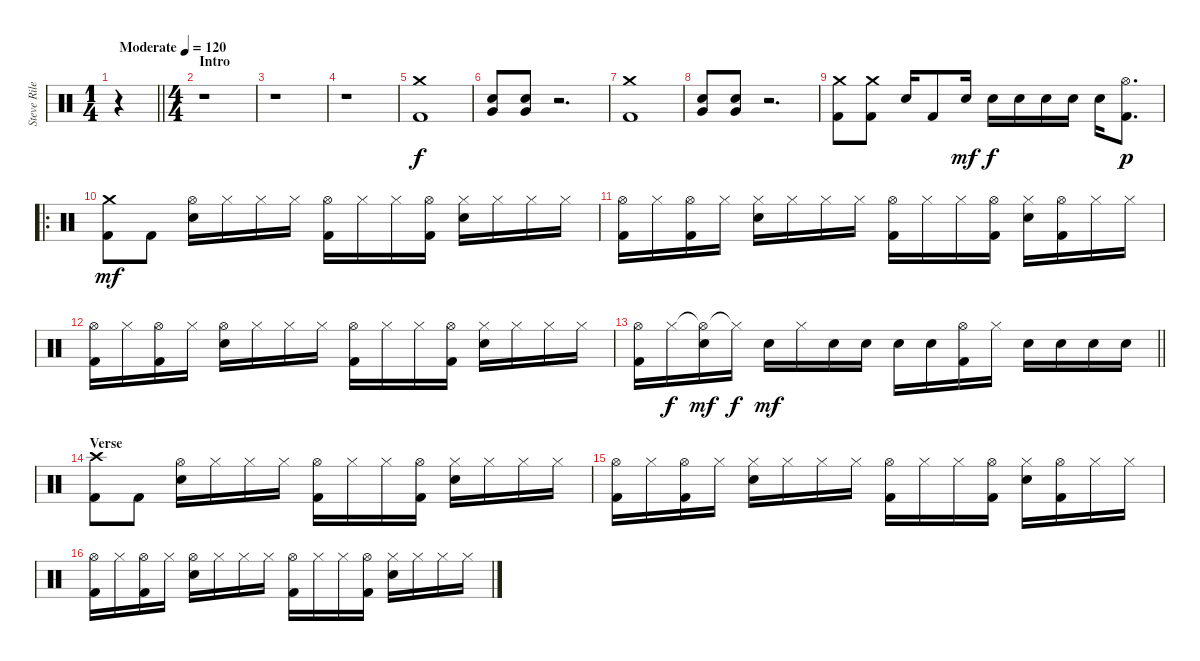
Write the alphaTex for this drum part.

\track ("Steve Riley" "Steve Rile") {instrument percussion}
\staff {score}
\articulation defaults
\ts (1 4)
\tempo (120 "Moderate")
\clef neutral
\barLineRight lightlight
\ks c
r.4{dy f} |
\ts (4 4)
\section ("" "Intro")
r.1 |
r.1 |
r.1 |
("Crash medium (hit)" "Kick (hit) 2").1 |
("Very Low Tom (hit)" "Snare (hit) 2").8 ("Very Low Tom (hit)" "Snare (hit) 2").8 r.2{d} |
("Crash medium (hit)" "Kick (hit) 2").1 |
("Very Low Tom (hit)" "Snare (hit) 2").8 ("Very Low Tom (hit)" "Snare (hit) 2").8 r.2{d} |
("Crash medium (hit)" "Kick (hit) 2").8 ("Crash medium (hit)" "Kick (hit) 2").8 "Snare (hit) 2".16 "Kick (hit) 2".8 "Snare (hit) 2".16{dy mf} "Snare (hit) 2".16{dy f} "Snare (hit) 2".16 "Snare (hit) 2".16 "Snare (hit) 2".16 "Snare (hit) 2".16 ("Hi-Hat (open)" "Kick (hit) 2").8{d dy p} |
\ro
("Crash medium (hit)" "Kick (hit) 2").8{dy mf} "Kick (hit) 2".8 ("Hi-Hat (open)" "Snare (hit) 2").16 "Hi-Hat (closed)".16 "Hi-Hat (closed)".16 "Hi-Hat (closed)".16 ("Hi-Hat (open)" "Kick (hit) 2").16 "Hi-Hat (closed)".16 "Hi-Hat (closed)".16 ("Hi-Hat (open)" "Kick (hit) 2").16 ("Hi-Hat (closed)" "Snare (hit) 2").16 "Hi-Hat (closed)".16 "Hi-Hat (closed)".16 "Hi-Hat (closed)".16 |
("Hi-Hat (open)" "Kick (hit) 2").16 "Hi-Hat (closed)".16 ("Hi-Hat (open)" "Kick (hit) 2").16 "Hi-Hat (closed)".16 ("Hi-Hat (closed)" "Snare (hit) 2").16 "Hi-Hat (closed)".16 "Hi-Hat (closed)".16 "Hi-Hat (closed)".16 ("Hi-Hat (open)" "Kick (hit) 2").16 "Hi-Hat (closed)".16 "Hi-Hat (closed)".16 ("Hi-Hat (open)" "Kick (hit) 2").16 ("Hi-Hat (closed)" "Snare (hit) 2").16 ("Hi-Hat (open)" "Kick (hit) 2").16 "Hi-Hat (closed)".16 "Hi-Hat (closed)".16 |
("Hi-Hat (open)" "Kick (hit) 2").16 "Hi-Hat (closed)".16 ("Hi-Hat (open)" "Kick (hit) 2").16 "Hi-Hat (closed)".16 ("Hi-Hat (open)" "Snare (hit) 2").16 "Hi-Hat (closed)".16 "Hi-Hat (closed)".16 "Hi-Hat (closed)".16 ("Hi-Hat (open)" "Kick (hit) 2").16 "Hi-Hat (closed)".16 "Hi-Hat (closed)".16 ("Hi-Hat (open)" "Kick (hit) 2").16 ("Hi-Hat (closed)" "Snare (hit) 2").16 "Hi-Hat (closed)".16 "Hi-Hat (closed)".16 "Hi-Hat (closed)".16 |
\barLineRight lightlight
("Hi-Hat (open)" "Kick (hit) 2").16 "Hi-Hat (closed)".16{dy f} ("Hi-Hat (open)"{t} "Snare (hit) 2").16{dy mf} "Hi-Hat (closed)"{t}.16{dy f} "Snare (hit) 2".16{dy mf} "Hi-Hat (closed)".16 "Snare (hit) 2".16 "Snare (hit) 2".16 "Snare (hit) 2".16 "Snare (hit) 2".16 ("Hi-Hat (open)" "Kick (hit) 2").16 "Hi-Hat (closed)".16 "Snare (hit) 2".16 "Snare (hit) 2".16 "Snare (hit) 2".16 "Snare (hit) 2".16 |
\section ("" "Verse")
("Crash high (hit)" "Kick (hit) 2").8 "Kick (hit) 2".8 ("Hi-Hat (open)" "Snare (hit) 2").16 "Hi-Hat (closed)".16 "Hi-Hat (closed)".16 "Hi-Hat (closed)".16 ("Hi-Hat (open)" "Kick (hit) 2").16 "Hi-Hat (closed)".16 "Hi-Hat (closed)".16 ("Hi-Hat (open)" "Kick (hit) 2").16 ("Hi-Hat (closed)" "Snare (hit) 2").16 "Hi-Hat (closed)".16 "Hi-Hat (closed)".16 "Hi-Hat (closed)".16 |
("Hi-Hat (open)" "Kick (hit) 2").16 "Hi-Hat (closed)".16 ("Hi-Hat (open)" "Kick (hit) 2").16 "Hi-Hat (closed)".16 ("Hi-Hat (closed)" "Snare (hit) 2").16 "Hi-Hat (closed)".16 "Hi-Hat (closed)".16 "Hi-Hat (closed)".16 ("Hi-Hat (open)" "Kick (hit) 2").16 "Hi-Hat (closed)".16 "Hi-Hat (closed)".16 ("Hi-Hat (open)" "Kick (hit) 2").16 ("Hi-Hat (closed)" "Snare (hit) 2").16 ("Hi-Hat (open)" "Kick (hit) 2").16 "Hi-Hat (closed)".16 "Hi-Hat (closed)".16 |
("Hi-Hat (open)" "Kick (hit) 2").16 "Hi-Hat (closed)".16 ("Hi-Hat (open)" "Kick (hit) 2").16 "Hi-Hat (closed)".16 ("Hi-Hat (open)" "Snare (hit) 2").16 "Hi-Hat (closed)".16 "Hi-Hat (closed)".16 "Hi-Hat (closed)".16 ("Hi-Hat (open)" "Kick (hit) 2").16 "Hi-Hat (closed)".16 "Hi-Hat (closed)".16 ("Hi-Hat (open)" "Kick (hit) 2").16 ("Hi-Hat (closed)" "Snare (hit) 2").16 "Hi-Hat (closed)".16 "Hi-Hat (closed)".16 "Hi-Hat (closed)".16
